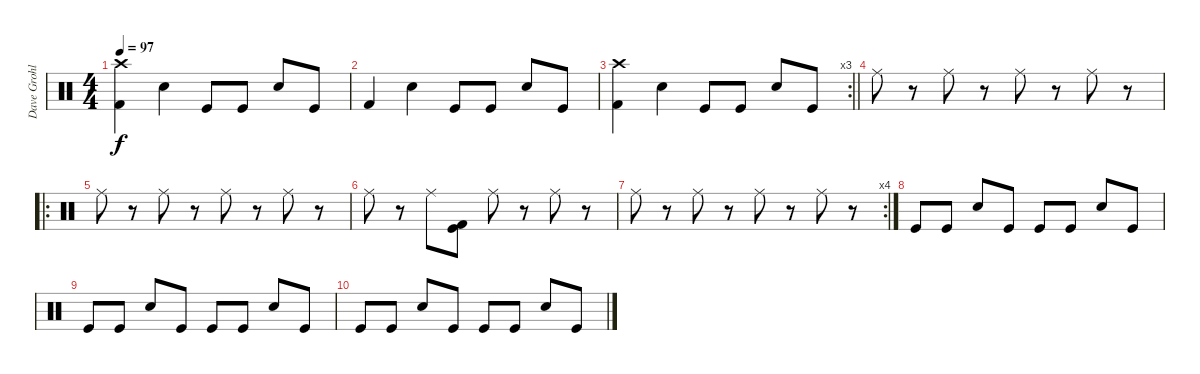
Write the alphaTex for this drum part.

\track ("Dave Grohl" "Dave Grohl") {instrument percussion}
\staff {score}
\articulation defaults
\ts (4 4)
\tempo 97
\clef neutral
\ks c
("Crash high (hit)" "Kick (hit) 2").4{dy f} "Electric Snare (hit)".4 "Kick (hit)".8 "Kick (hit)".8 "Electric Snare (hit)".8 "Kick (hit)".8 |
"Kick (hit) 2".4 "Electric Snare (hit)".4 "Kick (hit)".8 "Kick (hit)".8 "Electric Snare (hit)".8 "Kick (hit)".8 |
\rc 3
\barLineRight lightlight
("Crash high (hit)" "Kick (hit) 2").4 "Electric Snare (hit)".4 "Kick (hit)".8 "Kick (hit)".8 "Electric Snare (hit)".8 "Kick (hit)".8 |
"Ride (middle)".8 r.8 "Ride (middle)".8 r.8 "Ride (middle)".8 r.8 "Ride (middle)".8 r.8 |
\ro "Ride (middle)".8
r.8 "Ride (middle)".8 r.8 "Ride (middle)".8 r.8 "Ride (middle)".8 r.8 |
"Ride (middle)".8 r.8 "Ride (middle)".8 ("Kick (hit) 2" "Kick (hit)").8 "Ride (middle)".8 r.8 "Ride (middle)".8 r.8 |
\rc 4 "Ride (middle)".8
r.8 "Ride (middle)".8 r.8 "Ride (middle)".8 r.8 "Ride (middle)".8 r.8 |
"Kick (hit)".8 "Kick (hit)".8 "Electric Snare (hit)".8 "Kick (hit)".8 "Kick (hit)".8 "Kick (hit)".8 "Electric Snare (hit)".8 "Kick (hit)".8 |
"Kick (hit)".8 "Kick (hit)".8 "Electric Snare (hit)".8 "Kick (hit)".8 "Kick (hit)".8 "Kick (hit)".8 "Electric Snare (hit)".8 "Kick (hit)".8 |
"Kick (hit)".8 "Kick (hit)".8 "Electric Snare (hit)".8 "Kick (hit)".8 "Kick (hit)".8 "Kick (hit)".8 "Electric Snare (hit)".8 "Kick (hit)".8
